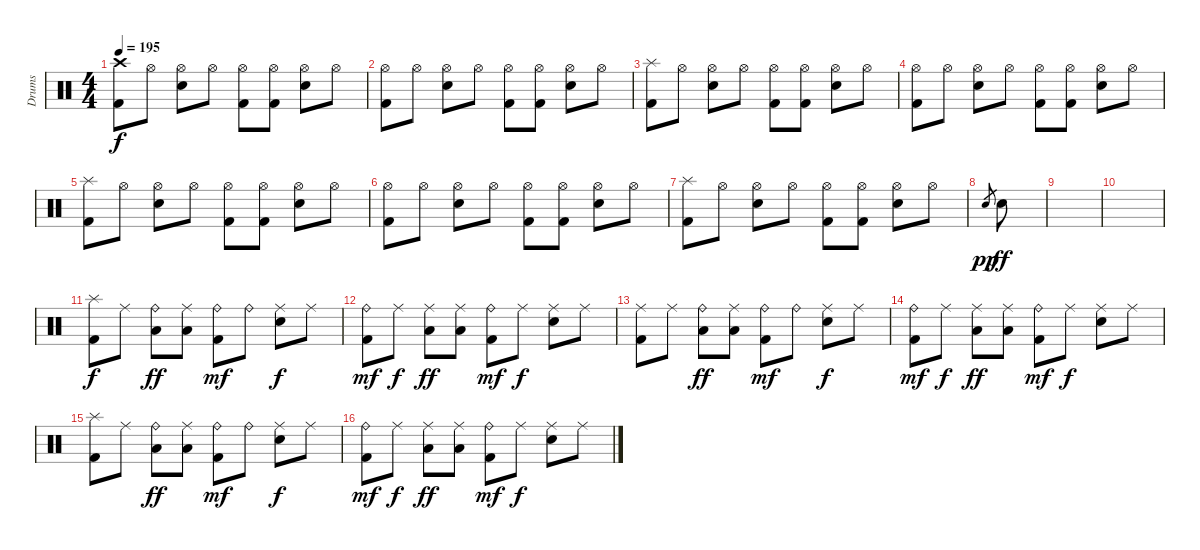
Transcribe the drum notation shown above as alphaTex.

\track ("Drums" "Drums") {instrument percussion}
\staff {score}
\articulation defaults
\ts (4 4)
\tempo 195
\clef neutral
\ks c
("Crash high (hit)" "Kick (hit) 2").8{dy f} "Hi-Hat (open)".8 ("Hi-Hat (open)" "Snare (hit) 2").8 "Hi-Hat (open)".8 ("Hi-Hat (open)" "Kick (hit) 2").8 ("Hi-Hat (open)" "Kick (hit) 2").8 ("Hi-Hat (open)" "Snare (hit) 2").8 "Hi-Hat (open)".8 |
("Hi-Hat (open)" "Kick (hit) 2").8 "Hi-Hat (open)".8 ("Hi-Hat (open)" "Snare (hit) 2").8 "Hi-Hat (open)".8 ("Hi-Hat (open)" "Kick (hit) 2").8 ("Hi-Hat (open)" "Kick (hit) 2").8 ("Hi-Hat (open)" "Snare (hit) 2").8 "Hi-Hat (open)".8 |
("Splash (hit)" "Kick (hit) 2").8 "Hi-Hat (open)".8 ("Hi-Hat (open)" "Snare (hit) 2").8 "Hi-Hat (open)".8 ("Hi-Hat (open)" "Kick (hit) 2").8 ("Hi-Hat (open)" "Kick (hit) 2").8 ("Hi-Hat (open)" "Snare (hit) 2").8 "Hi-Hat (open)".8 |
("Hi-Hat (open)" "Kick (hit) 2").8 "Hi-Hat (open)".8 ("Hi-Hat (open)" "Snare (hit) 2").8 "Hi-Hat (open)".8 ("Hi-Hat (open)" "Kick (hit) 2").8 ("Hi-Hat (open)" "Kick (hit) 2").8 ("Hi-Hat (open)" "Snare (hit) 2").8 "Hi-Hat (open)".8 |
("Splash (hit)" "Kick (hit) 2").8 "Hi-Hat (open)".8 ("Hi-Hat (open)" "Snare (hit) 2").8 "Hi-Hat (open)".8 ("Hi-Hat (open)" "Kick (hit) 2").8 ("Hi-Hat (open)" "Kick (hit) 2").8 ("Hi-Hat (open)" "Snare (hit) 2").8 "Hi-Hat (open)".8 |
("Hi-Hat (open)" "Kick (hit) 2").8 "Hi-Hat (open)".8 ("Hi-Hat (open)" "Snare (hit) 2").8 "Hi-Hat (open)".8 ("Hi-Hat (open)" "Kick (hit) 2").8 ("Hi-Hat (open)" "Kick (hit) 2").8 ("Hi-Hat (open)" "Snare (hit) 2").8 "Hi-Hat (open)".8 |
("Splash (hit)" "Kick (hit) 2").8 "Hi-Hat (open)".8 ("Hi-Hat (open)" "Snare (hit) 2").8 "Hi-Hat (open)".8 ("Hi-Hat (open)" "Kick (hit) 2").8 ("Hi-Hat (open)" "Kick (hit) 2").8 ("Hi-Hat (open)" "Snare (hit) 2").8 "Hi-Hat (open)".8 |
"Snare (hit) 2".8{gr dy pp} "Snare (hit) 2".8{dy ff} |
|
|
("Splash (hit)" "Kick (hit) 2").8{dy f} "Ride (middle)".8 ("Ride (bell)" "Low Tom (hit)").8{dy ff} ("Ride (middle)" "Low Tom (hit)").8 ("Ride (bell)" "Kick (hit) 2").8{dy mf} "Ride (bell)".8 ("Ride (middle)" "Snare (hit) 2").8{dy f} "Ride (middle)".8 |
("Ride (bell)" "Kick (hit) 2").8{dy mf} "Ride (middle)".8{dy f} ("Ride (middle)" "Low Tom (hit)").8{dy ff} ("Ride (middle)" "Low Tom (hit)").8 ("Ride (bell)" "Kick (hit) 2").8{dy mf} "Ride (middle)".8{dy f} ("Ride (middle)" "Snare (hit) 2").8 "Ride (middle)".8 |
("Ride (middle)" "Kick (hit) 2").8 "Ride (middle)".8 ("Ride (bell)" "Low Tom (hit)").8{dy ff} ("Ride (middle)" "Low Tom (hit)").8 ("Ride (bell)" "Kick (hit) 2").8{dy mf} "Ride (bell)".8 ("Ride (middle)" "Snare (hit) 2").8{dy f} "Ride (middle)".8 |
("Ride (bell)" "Kick (hit) 2").8{dy mf} "Ride (middle)".8{dy f} ("Ride (middle)" "Low Tom (hit)").8{dy ff} ("Ride (middle)" "Low Tom (hit)").8 ("Ride (bell)" "Kick (hit) 2").8{dy mf} "Ride (middle)".8{dy f} ("Ride (middle)" "Snare (hit) 2").8 "Ride (middle)".8 |
("Splash (hit)" "Kick (hit) 2").8 "Ride (middle)".8 ("Ride (bell)" "Low Tom (hit)").8{dy ff} ("Ride (middle)" "Low Tom (hit)").8 ("Ride (bell)" "Kick (hit) 2").8{dy mf} "Ride (bell)".8 ("Ride (middle)" "Snare (hit) 2").8{dy f} "Ride (middle)".8 |
("Ride (bell)" "Kick (hit) 2").8{dy mf} "Ride (middle)".8{dy f} ("Ride (middle)" "Low Tom (hit)").8{dy ff} ("Ride (middle)" "Low Tom (hit)").8 ("Ride (bell)" "Kick (hit) 2").8{dy mf} "Ride (middle)".8{dy f} ("Ride (middle)" "Snare (hit) 2").8 "Ride (middle)".8
